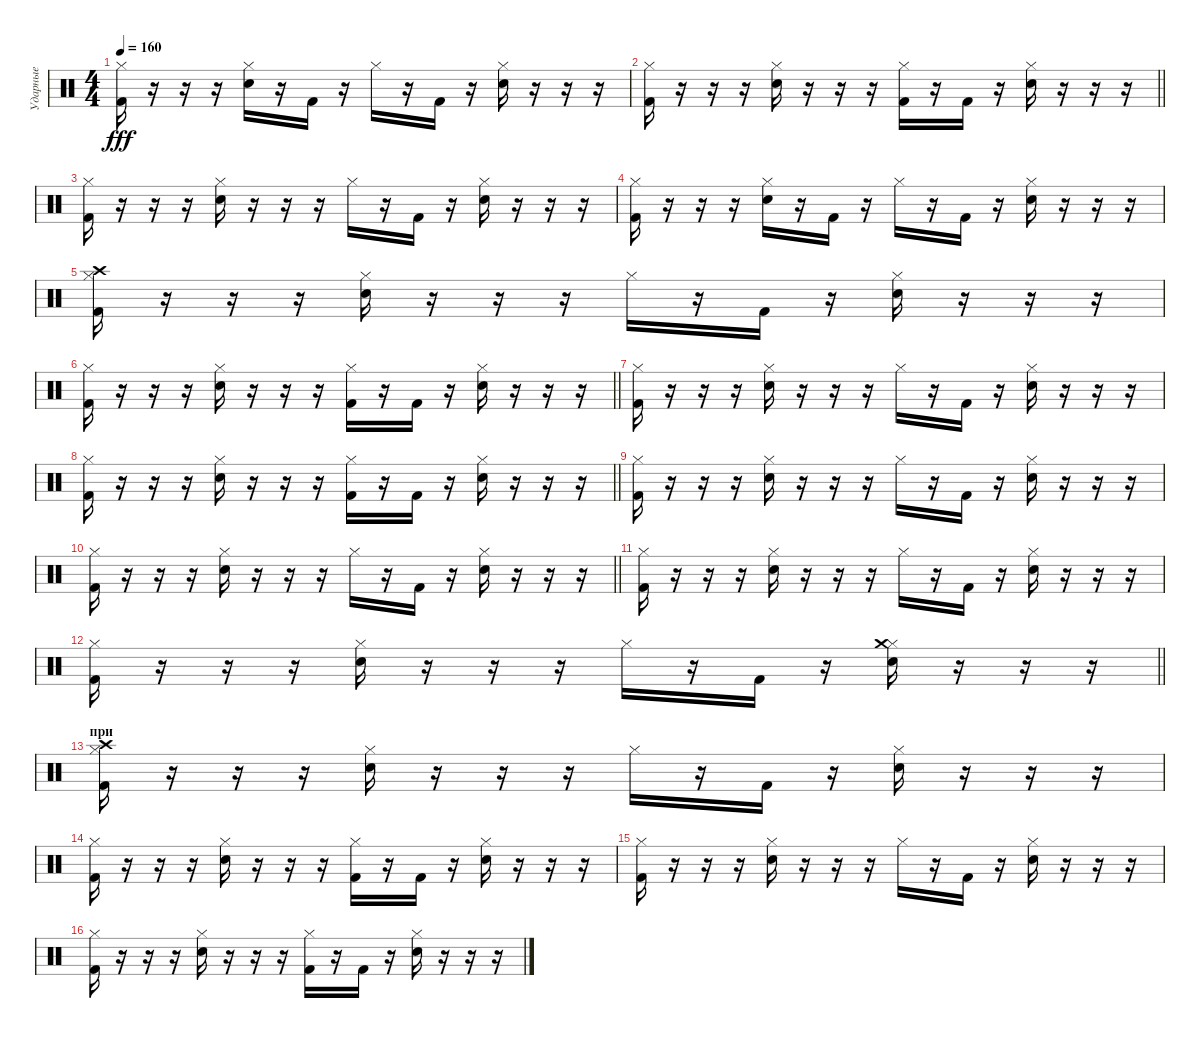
\track ("Ударные" "Ударные") {instrument percussion}
\staff {score}
\articulation defaults
\ts (4 4)
\tempo 160
\clef neutral
\ks c
("Kick (hit) 2" "Hi-Hat (closed)").16{dy fff} r.16 r.16 r.16 ("Snare (hit) 2" "Hi-Hat (closed)").16 r.16 "Kick (hit) 2".16 r.16 "Hi-Hat (closed)".16 r.16 "Kick (hit) 2".16 r.16 ("Snare (hit) 2" "Hi-Hat (closed)").16 r.16 r.16 r.16 |
\barLineRight lightlight
("Kick (hit) 2" "Hi-Hat (closed)").16 r.16 r.16 r.16 ("Snare (hit) 2" "Hi-Hat (closed)").16 r.16 r.16 r.16 ("Kick (hit) 2" "Hi-Hat (closed)").16 r.16 "Kick (hit) 2".16 r.16 ("Snare (hit) 2" "Hi-Hat (closed)").16 r.16 r.16 r.16 |
("Kick (hit) 2" "Hi-Hat (closed)").16 r.16 r.16 r.16 ("Snare (hit) 2" "Hi-Hat (closed)").16 r.16 r.16 r.16 "Hi-Hat (closed)".16 r.16 "Kick (hit) 2".16 r.16 ("Snare (hit) 2" "Hi-Hat (closed)").16 r.16 r.16 r.16 |
("Kick (hit) 2" "Hi-Hat (closed)").16 r.16 r.16 r.16 ("Snare (hit) 2" "Hi-Hat (closed)").16 r.16 "Kick (hit) 2".16 r.16 "Hi-Hat (closed)".16 r.16 "Kick (hit) 2".16 r.16 ("Snare (hit) 2" "Hi-Hat (closed)").16 r.16 r.16 r.16 |
("Kick (hit) 2" "Hi-Hat (closed)" "Crash high (hit)").16 r.16 r.16 r.16 ("Snare (hit) 2" "Hi-Hat (closed)").16 r.16 r.16 r.16 "Hi-Hat (closed)".16 r.16 "Kick (hit) 2".16 r.16 ("Snare (hit) 2" "Hi-Hat (closed)").16 r.16 r.16 r.16 |
\barLineRight lightlight
("Kick (hit) 2" "Hi-Hat (closed)").16 r.16 r.16 r.16 ("Snare (hit) 2" "Hi-Hat (closed)").16 r.16 r.16 r.16 ("Kick (hit) 2" "Hi-Hat (closed)").16 r.16 "Kick (hit) 2".16 r.16 ("Snare (hit) 2" "Hi-Hat (closed)").16 r.16 r.16 r.16 |
("Kick (hit) 2" "Hi-Hat (closed)").16 r.16 r.16 r.16 ("Snare (hit) 2" "Hi-Hat (closed)").16 r.16 r.16 r.16 "Hi-Hat (closed)".16 r.16 "Kick (hit) 2".16 r.16 ("Snare (hit) 2" "Hi-Hat (closed)").16 r.16 r.16 r.16 |
\barLineRight lightlight
("Kick (hit) 2" "Hi-Hat (closed)").16 r.16 r.16 r.16 ("Snare (hit) 2" "Hi-Hat (closed)").16 r.16 r.16 r.16 ("Kick (hit) 2" "Hi-Hat (closed)").16 r.16 "Kick (hit) 2".16 r.16 ("Snare (hit) 2" "Hi-Hat (closed)").16 r.16 r.16 r.16 |
("Kick (hit) 2" "Hi-Hat (closed)").16 r.16 r.16 r.16 ("Snare (hit) 2" "Hi-Hat (closed)").16 r.16 r.16 r.16 "Hi-Hat (closed)".16 r.16 "Kick (hit) 2".16 r.16 ("Snare (hit) 2" "Hi-Hat (closed)").16 r.16 r.16 r.16 |
\barLineRight lightlight
("Kick (hit) 2" "Hi-Hat (closed)").16 r.16 r.16 r.16 ("Snare (hit) 2" "Hi-Hat (closed)").16 r.16 r.16 r.16 "Hi-Hat (closed)".16 r.16 "Kick (hit) 2".16 r.16 ("Snare (hit) 2" "Hi-Hat (closed)").16 r.16 r.16 r.16 |
("Kick (hit) 2" "Hi-Hat (closed)").16 r.16 r.16 r.16 ("Snare (hit) 2" "Hi-Hat (closed)").16 r.16 r.16 r.16 "Hi-Hat (closed)".16 r.16 "Kick (hit) 2".16 r.16 ("Snare (hit) 2" "Hi-Hat (closed)").16 r.16 r.16 r.16 |
\barLineRight lightlight
("Kick (hit) 2" "Hi-Hat (closed)").16 r.16 r.16 r.16 ("Snare (hit) 2" "Hi-Hat (closed)").16 r.16 r.16 r.16 "Hi-Hat (closed)".16 r.16 "Kick (hit) 2".16 r.16 ("Snare (hit) 2" "Hi-Hat (closed)" "Crash medium (hit)").16 r.16 r.16 r.16 |
\section ("" "при")
("Kick (hit) 2" "Hi-Hat (closed)" "Crash high (hit)").16 r.16 r.16 r.16 ("Snare (hit) 2" "Hi-Hat (closed)").16 r.16 r.16 r.16 "Hi-Hat (closed)".16 r.16 "Kick (hit) 2".16 r.16 ("Snare (hit) 2" "Hi-Hat (closed)").16 r.16 r.16 r.16 |
("Kick (hit) 2" "Hi-Hat (closed)").16 r.16 r.16 r.16 ("Snare (hit) 2" "Hi-Hat (closed)").16 r.16 r.16 r.16 ("Kick (hit) 2" "Hi-Hat (closed)").16 r.16 "Kick (hit) 2".16 r.16 ("Snare (hit) 2" "Hi-Hat (closed)").16 r.16 r.16 r.16 |
("Kick (hit) 2" "Hi-Hat (closed)").16 r.16 r.16 r.16 ("Snare (hit) 2" "Hi-Hat (closed)").16 r.16 r.16 r.16 "Hi-Hat (closed)".16 r.16 "Kick (hit) 2".16 r.16 ("Snare (hit) 2" "Hi-Hat (closed)").16 r.16 r.16 r.16 |
("Kick (hit) 2" "Hi-Hat (closed)").16 r.16 r.16 r.16 ("Snare (hit) 2" "Hi-Hat (closed)").16 r.16 r.16 r.16 ("Kick (hit) 2" "Hi-Hat (closed)").16 r.16 "Kick (hit) 2".16 r.16 ("Snare (hit) 2" "Hi-Hat (closed)").16 r.16 r.16 r.16
